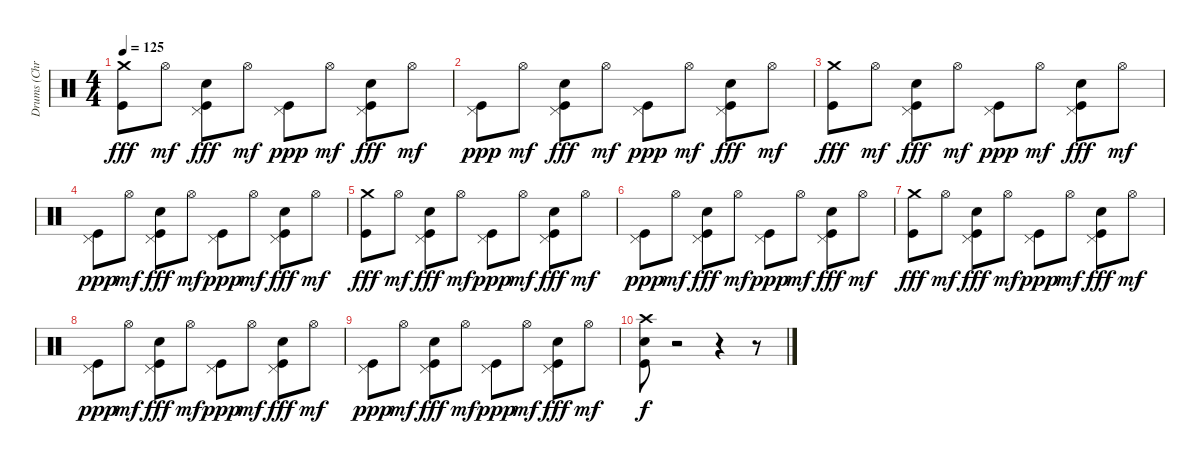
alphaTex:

\track ("Drums (Christoph)" "Drums (Chr") {instrument percussion}
\staff {score}
\articulation defaults
\ts (4 4)
\tempo 125
\clef neutral
\ks c
("Kick (hit)" "Crash medium (hit)").8{dy fff} "Hi-Hat (open)".8{dy mf} ("Kick (hit)" "Pedal Hi-Hat (hit)" "Electric Snare (hit)").8{dy fff} "Hi-Hat (open)".8{dy mf} ("Kick (hit)" "Pedal Hi-Hat (hit)").8{dy ppp} "Hi-Hat (open)".8{dy mf} ("Kick (hit)" "Pedal Hi-Hat (hit)" "Electric Snare (hit)").8{dy fff} "Hi-Hat (open)".8{dy mf} |
("Kick (hit)" "Pedal Hi-Hat (hit)").8{dy ppp} "Hi-Hat (open)".8{dy mf} ("Kick (hit)" "Pedal Hi-Hat (hit)" "Electric Snare (hit)").8{dy fff} "Hi-Hat (open)".8{dy mf} ("Kick (hit)" "Pedal Hi-Hat (hit)").8{dy ppp} "Hi-Hat (open)".8{dy mf} ("Kick (hit)" "Pedal Hi-Hat (hit)" "Electric Snare (hit)").8{dy fff} "Hi-Hat (open)".8{dy mf} |
("Kick (hit)" "Crash medium (hit)").8{dy fff} "Hi-Hat (open)".8{dy mf} ("Kick (hit)" "Pedal Hi-Hat (hit)" "Electric Snare (hit)").8{dy fff} "Hi-Hat (open)".8{dy mf} ("Kick (hit)" "Pedal Hi-Hat (hit)").8{dy ppp} "Hi-Hat (open)".8{dy mf} ("Kick (hit)" "Pedal Hi-Hat (hit)" "Electric Snare (hit)").8{dy fff} "Hi-Hat (open)".8{dy mf} |
("Kick (hit)" "Pedal Hi-Hat (hit)").8{dy ppp} "Hi-Hat (open)".8{dy mf} ("Kick (hit)" "Pedal Hi-Hat (hit)" "Electric Snare (hit)").8{dy fff} "Hi-Hat (open)".8{dy mf} ("Kick (hit)" "Pedal Hi-Hat (hit)").8{dy ppp} "Hi-Hat (open)".8{dy mf} ("Kick (hit)" "Pedal Hi-Hat (hit)" "Electric Snare (hit)").8{dy fff} "Hi-Hat (open)".8{dy mf} |
("Kick (hit)" "Crash medium (hit)").8{dy fff} "Hi-Hat (open)".8{dy mf} ("Kick (hit)" "Pedal Hi-Hat (hit)" "Electric Snare (hit)").8{dy fff} "Hi-Hat (open)".8{dy mf} ("Kick (hit)" "Pedal Hi-Hat (hit)").8{dy ppp} "Hi-Hat (open)".8{dy mf} ("Kick (hit)" "Pedal Hi-Hat (hit)" "Electric Snare (hit)").8{dy fff} "Hi-Hat (open)".8{dy mf} |
("Kick (hit)" "Pedal Hi-Hat (hit)").8{dy ppp} "Hi-Hat (open)".8{dy mf} ("Kick (hit)" "Pedal Hi-Hat (hit)" "Electric Snare (hit)").8{dy fff} "Hi-Hat (open)".8{dy mf} ("Kick (hit)" "Pedal Hi-Hat (hit)").8{dy ppp} "Hi-Hat (open)".8{dy mf} ("Kick (hit)" "Pedal Hi-Hat (hit)" "Electric Snare (hit)").8{dy fff} "Hi-Hat (open)".8{dy mf} |
("Kick (hit)" "Crash medium (hit)").8{dy fff} "Hi-Hat (open)".8{dy mf} ("Kick (hit)" "Pedal Hi-Hat (hit)" "Electric Snare (hit)").8{dy fff} "Hi-Hat (open)".8{dy mf} ("Kick (hit)" "Pedal Hi-Hat (hit)").8{dy ppp} "Hi-Hat (open)".8{dy mf} ("Kick (hit)" "Pedal Hi-Hat (hit)" "Electric Snare (hit)").8{dy fff} "Hi-Hat (open)".8{dy mf} |
("Kick (hit)" "Pedal Hi-Hat (hit)").8{dy ppp} "Hi-Hat (open)".8{dy mf} ("Kick (hit)" "Pedal Hi-Hat (hit)" "Electric Snare (hit)").8{dy fff} "Hi-Hat (open)".8{dy mf} ("Kick (hit)" "Pedal Hi-Hat (hit)").8{dy ppp} "Hi-Hat (open)".8{dy mf} ("Kick (hit)" "Pedal Hi-Hat (hit)" "Electric Snare (hit)").8{dy fff} "Hi-Hat (open)".8{dy mf} |
("Kick (hit)" "Pedal Hi-Hat (hit)").8{dy ppp} "Hi-Hat (open)".8{dy mf} ("Kick (hit)" "Pedal Hi-Hat (hit)" "Electric Snare (hit)").8{dy fff} "Hi-Hat (open)".8{dy mf} ("Kick (hit)" "Pedal Hi-Hat (hit)").8{dy ppp} "Hi-Hat (open)".8{dy mf} ("Kick (hit)" "Pedal Hi-Hat (hit)" "Electric Snare (hit)").8{dy fff} "Hi-Hat (open)".8{dy mf} |
("Electric Snare (hit)" "Crash high (hit)" "Kick (hit)").8{dy f} r.2 r.4 r.8
